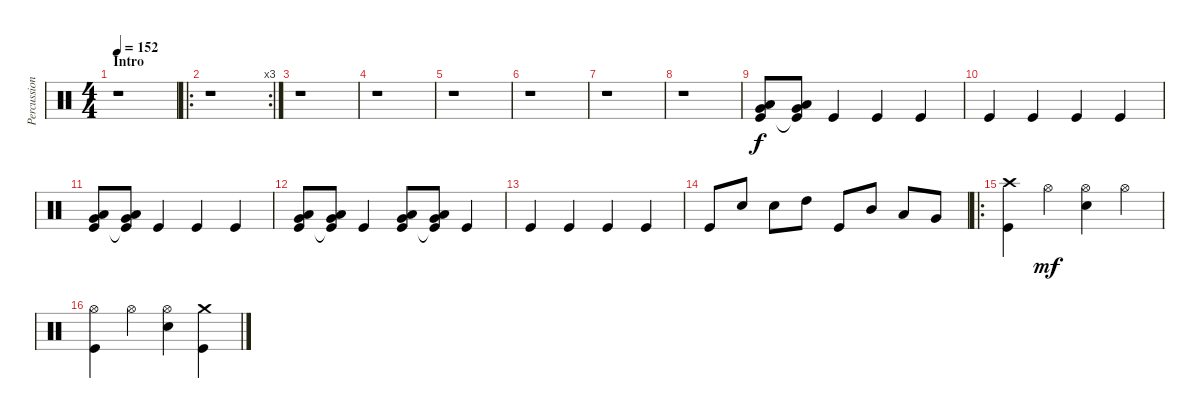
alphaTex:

\track ("Percussion" "Percussion") {instrument percussion}
\staff {score}
\articulation defaults
\ts (4 4)
\section ("" "Intro")
\tempo 152
\clef neutral
\ks c
r.1{dy f} |
\ro
\rc 3
r.1 |
r.1 |
r.1 |
r.1 |
r.1 |
r.1 |
r.1 |
("Very Low Tom (hit)" "Low Tom (hit)" "Kick (hit)").8 ("Very Low Tom (hit)" "Low Tom (hit)" "Kick (hit)"{t}).8 "Kick (hit)".4 "Kick (hit)".4 "Kick (hit)".4 |
"Kick (hit)".4 "Kick (hit)".4 "Kick (hit)".4 "Kick (hit)".4 |
("Very Low Tom (hit)" "Low Tom (hit)" "Kick (hit)").8 ("Very Low Tom (hit)" "Low Tom (hit)" "Kick (hit)"{t}).8 "Kick (hit)".4 "Kick (hit)".4 "Kick (hit)".4 |
("Very Low Tom (hit)" "Low Tom (hit)" "Kick (hit)").8 ("Very Low Tom (hit)" "Low Tom (hit)" "Kick (hit)"{t}).8 "Kick (hit)".4 ("Very Low Tom (hit)" "Low Tom (hit)" "Kick (hit)").8 ("Very Low Tom (hit)" "Low Tom (hit)" "Kick (hit)"{t}).8 "Kick (hit)".4 |
"Kick (hit)".4 "Kick (hit)".4 "Kick (hit)".4 "Kick (hit)".4 |
"Kick (hit)".8 "Snare (hit) 2".8 "Snare (hit) 2".8 "High Tom (hit)".8 "Kick (hit)".8 "Mid Tom (hit)".8 "Low Tom (hit)".8 "Very Low Tom (hit)".8 |
\ro
("Crash high (hit)" "Kick (hit)").4 "Hi-Hat (open)".4{dy mf} ("Hi-Hat (open)" "Snare (hit) 2").4 "Hi-Hat (open)".4 |
("Hi-Hat (open)" "Kick (hit)").4 "Hi-Hat (open)".4 ("Hi-Hat (open)" "Snare (hit) 2").4 ("Crash medium (hit)" "Kick (hit)").4
